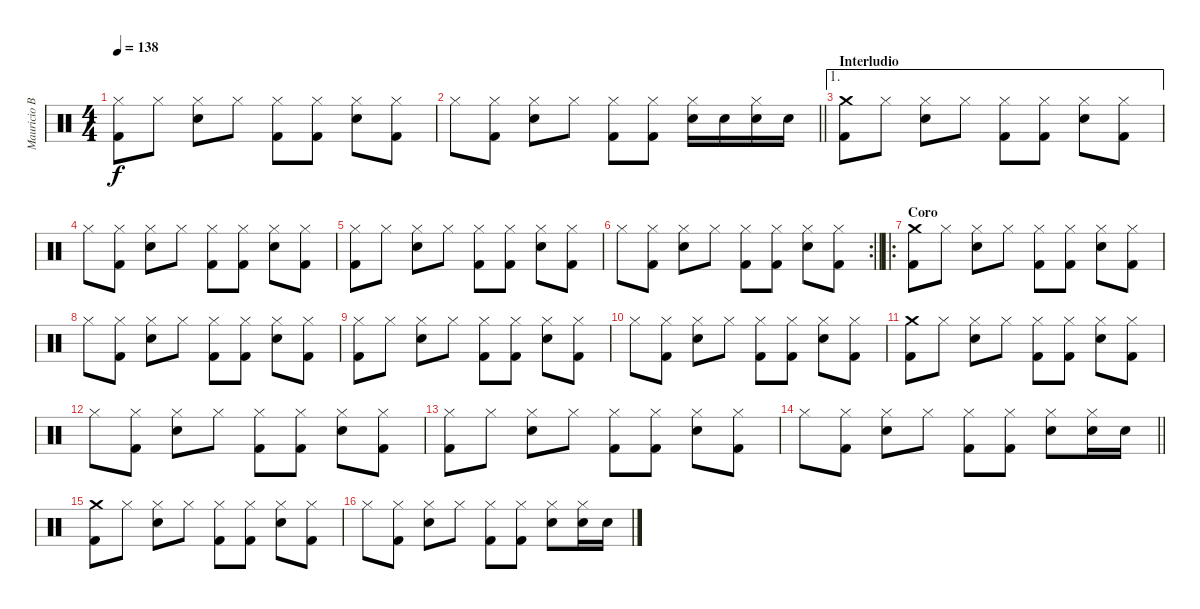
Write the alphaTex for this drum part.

\track ("Mauricio Basualto" "Mauricio B") {instrument percussion}
\staff {score}
\articulation defaults
\ts (4 4)
\tempo 138
\clef neutral
\ks c
("Hi-Hat (closed)" "Kick (hit) 2").8{dy f} "Hi-Hat (closed)".8 ("Hi-Hat (closed)" "Snare (hit) 2").8 "Hi-Hat (closed)".8 ("Hi-Hat (closed)" "Kick (hit) 2").8 ("Hi-Hat (closed)" "Kick (hit) 2").8 ("Hi-Hat (closed)" "Snare (hit) 2").8 ("Hi-Hat (closed)" "Kick (hit) 2").8 |
\barLineRight lightlight "Hi-Hat (closed)".8
("Hi-Hat (closed)" "Kick (hit) 2").8 ("Hi-Hat (closed)" "Snare (hit) 2").8 "Hi-Hat (closed)".8 ("Hi-Hat (closed)" "Kick (hit) 2").8 ("Hi-Hat (closed)" "Kick (hit) 2").8 ("Hi-Hat (closed)" "Snare (hit) 2").16 "Snare (hit) 2".16 ("Hi-Hat (closed)" "Snare (hit) 2").16 "Snare (hit) 2".16 |
\ae 1
\section ("" "Interludio")
("Crash medium (hit)" "Kick (hit) 2").8 "Hi-Hat (closed)".8 ("Hi-Hat (closed)" "Snare (hit) 2").8 "Hi-Hat (closed)".8 ("Hi-Hat (closed)" "Kick (hit) 2").8 ("Hi-Hat (closed)" "Kick (hit) 2").8 ("Hi-Hat (closed)" "Snare (hit) 2").8 ("Hi-Hat (closed)" "Kick (hit) 2").8 |
"Hi-Hat (closed)".8 ("Hi-Hat (closed)" "Kick (hit) 2").8 ("Hi-Hat (closed)" "Snare (hit) 2").8 "Hi-Hat (closed)".8 ("Hi-Hat (closed)" "Kick (hit) 2").8 ("Hi-Hat (closed)" "Kick (hit) 2").8 ("Hi-Hat (closed)" "Snare (hit) 2").8 ("Hi-Hat (closed)" "Kick (hit) 2").8 |
("Hi-Hat (closed)" "Kick (hit) 2").8 "Hi-Hat (closed)".8 ("Hi-Hat (closed)" "Snare (hit) 2").8 "Hi-Hat (closed)".8 ("Hi-Hat (closed)" "Kick (hit) 2").8 ("Hi-Hat (closed)" "Kick (hit) 2").8 ("Hi-Hat (closed)" "Snare (hit) 2").8 ("Hi-Hat (closed)" "Kick (hit) 2").8 |
\rc 2
\barLineRight lightlight "Hi-Hat (closed)".8
("Hi-Hat (closed)" "Kick (hit) 2").8 ("Hi-Hat (closed)" "Snare (hit) 2").8 "Hi-Hat (closed)".8 ("Hi-Hat (closed)" "Kick (hit) 2").8 ("Hi-Hat (closed)" "Kick (hit) 2").8 ("Hi-Hat (closed)" "Snare (hit) 2").8 ("Hi-Hat (closed)" "Kick (hit) 2").8 |
\ro
\section ("" "Coro")
("Crash medium (hit)" "Kick (hit) 2").8 "Hi-Hat (closed)".8 ("Hi-Hat (closed)" "Snare (hit) 2").8 "Hi-Hat (closed)".8 ("Hi-Hat (closed)" "Kick (hit) 2").8 ("Hi-Hat (closed)" "Kick (hit) 2").8 ("Hi-Hat (closed)" "Snare (hit) 2").8 ("Hi-Hat (closed)" "Kick (hit) 2").8 |
"Hi-Hat (closed)".8 ("Hi-Hat (closed)" "Kick (hit) 2").8 ("Hi-Hat (closed)" "Snare (hit) 2").8 "Hi-Hat (closed)".8 ("Hi-Hat (closed)" "Kick (hit) 2").8 ("Hi-Hat (closed)" "Kick (hit) 2").8 ("Hi-Hat (closed)" "Snare (hit) 2").8 ("Hi-Hat (closed)" "Kick (hit) 2").8 |
("Hi-Hat (closed)" "Kick (hit) 2").8 "Hi-Hat (closed)".8 ("Hi-Hat (closed)" "Snare (hit) 2").8 "Hi-Hat (closed)".8 ("Hi-Hat (closed)" "Kick (hit) 2").8 ("Hi-Hat (closed)" "Kick (hit) 2").8 ("Hi-Hat (closed)" "Snare (hit) 2").8 ("Hi-Hat (closed)" "Kick (hit) 2").8 |
"Hi-Hat (closed)".8 ("Hi-Hat (closed)" "Kick (hit) 2").8 ("Hi-Hat (closed)" "Snare (hit) 2").8 "Hi-Hat (closed)".8 ("Hi-Hat (closed)" "Kick (hit) 2").8 ("Hi-Hat (closed)" "Kick (hit) 2").8 ("Hi-Hat (closed)" "Snare (hit) 2").8 ("Hi-Hat (closed)" "Kick (hit) 2").8 |
("Crash medium (hit)" "Kick (hit) 2").8 "Hi-Hat (closed)".8 ("Hi-Hat (closed)" "Snare (hit) 2").8 "Hi-Hat (closed)".8 ("Hi-Hat (closed)" "Kick (hit) 2").8 ("Hi-Hat (closed)" "Kick (hit) 2").8 ("Hi-Hat (closed)" "Snare (hit) 2").8 ("Hi-Hat (closed)" "Kick (hit) 2").8 |
"Hi-Hat (closed)".8 ("Hi-Hat (closed)" "Kick (hit) 2").8 ("Hi-Hat (closed)" "Snare (hit) 2").8 "Hi-Hat (closed)".8 ("Hi-Hat (closed)" "Kick (hit) 2").8 ("Hi-Hat (closed)" "Kick (hit) 2").8 ("Hi-Hat (closed)" "Snare (hit) 2").8 ("Hi-Hat (closed)" "Kick (hit) 2").8 |
("Hi-Hat (closed)" "Kick (hit) 2").8 "Hi-Hat (closed)".8 ("Hi-Hat (closed)" "Snare (hit) 2").8 "Hi-Hat (closed)".8 ("Hi-Hat (closed)" "Kick (hit) 2").8 ("Hi-Hat (closed)" "Kick (hit) 2").8 ("Hi-Hat (closed)" "Snare (hit) 2").8 ("Hi-Hat (closed)" "Kick (hit) 2").8 |
\barLineRight lightlight "Hi-Hat (closed)".8
("Hi-Hat (closed)" "Kick (hit) 2").8 ("Hi-Hat (closed)" "Snare (hit) 2").8 "Hi-Hat (closed)".8 ("Hi-Hat (closed)" "Kick (hit) 2").8 ("Hi-Hat (closed)" "Kick (hit) 2").8 ("Hi-Hat (closed)" "Snare (hit) 2").8 ("Hi-Hat (closed)" "Snare (hit) 2").16 "Snare (hit) 2".16 |
("Crash medium (hit)" "Kick (hit) 2").8 "Hi-Hat (closed)".8 ("Hi-Hat (closed)" "Snare (hit) 2").8 "Hi-Hat (closed)".8 ("Hi-Hat (closed)" "Kick (hit) 2").8 ("Hi-Hat (closed)" "Kick (hit) 2").8 ("Hi-Hat (closed)" "Snare (hit) 2").8 ("Hi-Hat (closed)" "Kick (hit) 2").8 |
"Hi-Hat (closed)".8 ("Hi-Hat (closed)" "Kick (hit) 2").8 ("Hi-Hat (closed)" "Snare (hit) 2").8 "Hi-Hat (closed)".8 ("Hi-Hat (closed)" "Kick (hit) 2").8 ("Hi-Hat (closed)" "Kick (hit) 2").8 ("Hi-Hat (closed)" "Snare (hit) 2").8 ("Hi-Hat (closed)" "Snare (hit) 2").16 "Snare (hit) 2".16
